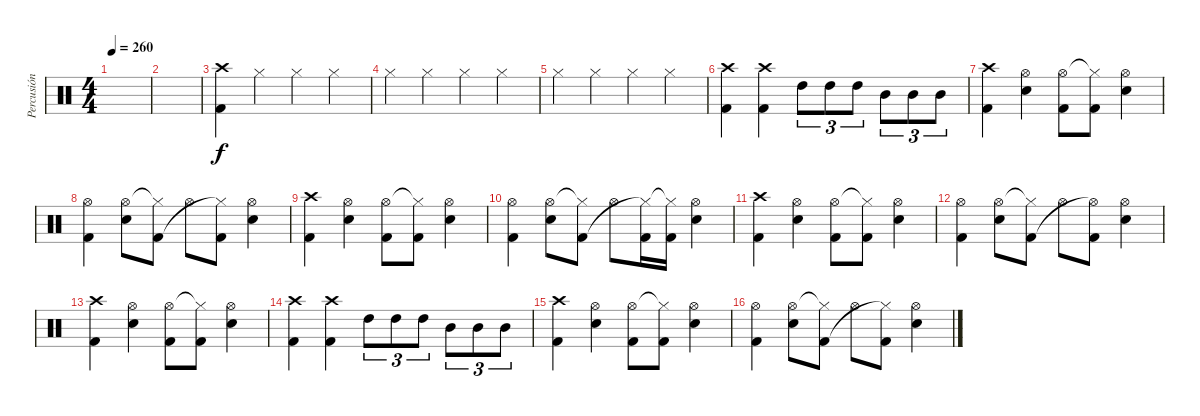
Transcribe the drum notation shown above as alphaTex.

\track ("Percusión" "Percusión") {instrument percussion}
\staff {score}
\articulation defaults
\ts (4 4)
\tempo 260
\clef neutral
\ks c
|
|
("Kick (hit) 2" "Crash high (hit)").4 "Hi-Hat (closed)".4 "Hi-Hat (closed)".4 "Hi-Hat (closed)".4 |
"Hi-Hat (closed)".4 "Hi-Hat (closed)".4 "Hi-Hat (closed)".4 "Hi-Hat (closed)".4 |
"Hi-Hat (closed)".4 "Hi-Hat (closed)".4 "Hi-Hat (closed)".4 "Hi-Hat (closed)".4 |
("Kick (hit) 2" "Crash high (hit)").4 ("Kick (hit) 2" "Crash high (hit)").4 "High Tom (hit)".8{tu (3 2)} "High Tom (hit)".8{tu (3 2)} "High Tom (hit)".8{tu (3 2)} "Mid Tom (hit)".8{tu (3 2)} "Mid Tom (hit)".8{tu (3 2)} "Mid Tom (hit)".8{tu (3 2)} |
("Crash high (hit)" "Kick (hit) 2").4 ("Hi-Hat (open)" "Snare (hit) 2").4 ("Kick (hit) 2" "Hi-Hat (open)").8 ("Kick (hit) 2" "Hi-Hat (closed)"{t}).8 ("Snare (hit) 2" "Hi-Hat (open)").4 |
("Hi-Hat (open)" "Kick (hit) 2").4 ("Hi-Hat (open)" "Snare (hit) 2").8 ("Hi-Hat (closed)"{t} "Kick (hit) 2").8 "Hi-Hat (open)".8 ("Kick (hit) 2" "Hi-Hat (closed)"{t}).8 ("Hi-Hat (open)" "Snare (hit) 2").4 |
("Crash high (hit)" "Kick (hit) 2").4 ("Hi-Hat (open)" "Snare (hit) 2").4 ("Kick (hit) 2" "Hi-Hat (open)").8 ("Kick (hit) 2" "Hi-Hat (closed)"{t}).8 ("Snare (hit) 2" "Hi-Hat (open)").4 |
("Hi-Hat (open)" "Kick (hit) 2").4 ("Hi-Hat (open)" "Snare (hit) 2").8 ("Hi-Hat (closed)"{t} "Kick (hit) 2").8 "Hi-Hat (open)".8 ("Kick (hit) 2" "Hi-Hat (closed)"{t}).16 ("Kick (hit) 2" "Hi-Hat (closed)"{t}).16 ("Hi-Hat (open)" "Snare (hit) 2").4 |
("Crash high (hit)" "Kick (hit) 2").4 ("Hi-Hat (open)" "Snare (hit) 2").4 ("Kick (hit) 2" "Hi-Hat (open)").8 ("Kick (hit) 2" "Hi-Hat (closed)"{t}).8 ("Snare (hit) 2" "Hi-Hat (open)").4 |
("Hi-Hat (open)" "Kick (hit) 2").4 ("Hi-Hat (open)" "Snare (hit) 2").8 ("Hi-Hat (closed)"{t} "Kick (hit) 2").8 "Hi-Hat (open)".8 ("Kick (hit) 2" "Hi-Hat (open)"{t}).8 ("Hi-Hat (open)" "Snare (hit) 2").4 |
("Crash high (hit)" "Kick (hit) 2").4 ("Hi-Hat (open)" "Snare (hit) 2").4 ("Kick (hit) 2" "Hi-Hat (open)").8 ("Kick (hit) 2" "Hi-Hat (closed)"{t}).8 ("Snare (hit) 2" "Hi-Hat (open)").4 |
("Kick (hit) 2" "Crash high (hit)").4 ("Kick (hit) 2" "Crash high (hit)").4 "High Tom (hit)".8{tu (3 2)} "High Tom (hit)".8{tu (3 2)} "High Tom (hit)".8{tu (3 2)} "Mid Tom (hit)".8{tu (3 2)} "Mid Tom (hit)".8{tu (3 2)} "Mid Tom (hit)".8{tu (3 2)} |
("Crash high (hit)" "Kick (hit) 2").4 ("Hi-Hat (open)" "Snare (hit) 2").4 ("Kick (hit) 2" "Hi-Hat (open)").8 ("Kick (hit) 2" "Hi-Hat (closed)"{t}).8 ("Snare (hit) 2" "Hi-Hat (open)").4 |
("Hi-Hat (open)" "Kick (hit) 2").4 ("Hi-Hat (open)" "Snare (hit) 2").8 ("Hi-Hat (closed)"{t} "Kick (hit) 2").8 "Hi-Hat (open)".8 ("Kick (hit) 2" "Hi-Hat (closed)"{t}).8 ("Hi-Hat (open)" "Snare (hit) 2").4
